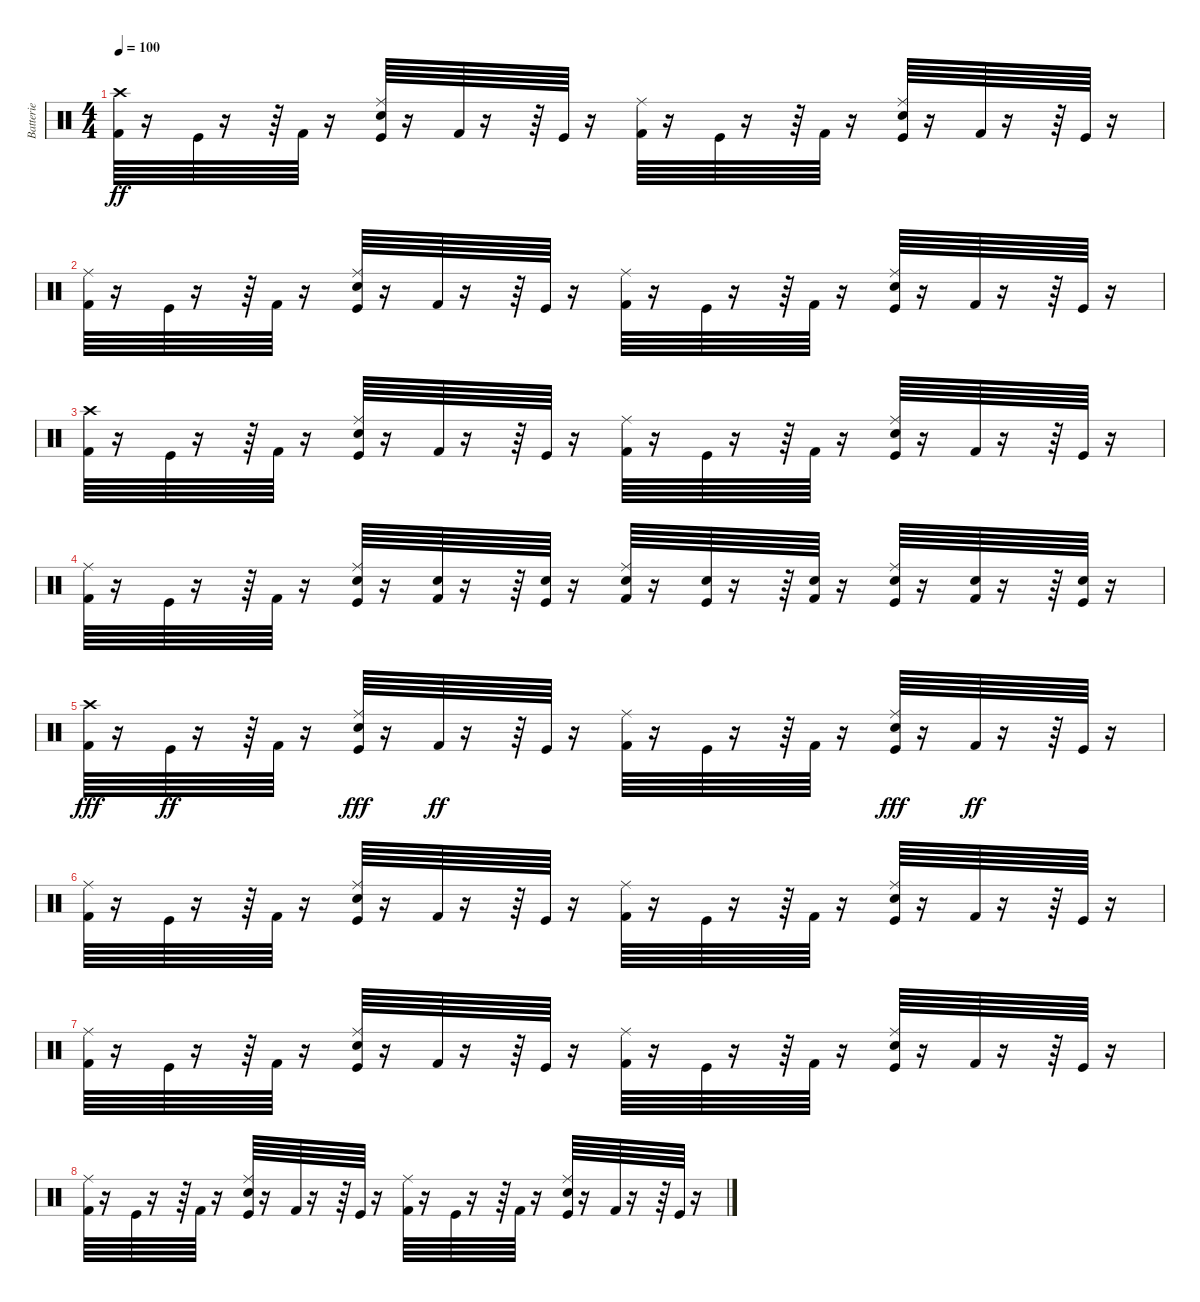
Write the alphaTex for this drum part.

\track ("Batterie" "Batterie") {instrument percussion}
\staff {score}
\articulation defaults
\ts (4 4)
\tempo 100
\clef neutral
\ks c
("Crash high (hit)" "Kick (hit) 2").64{dy ff} r.16 "Kick (hit)".64 r.16 r.64 "Kick (hit) 2".64 r.16 ("Ride (middle)" "Electric Snare (hit)" "Kick (hit)").64 r.16 "Kick (hit) 2".64 r.16 r.64 "Kick (hit)".64 r.16 ("Ride (middle)" "Kick (hit) 2").64 r.16 "Kick (hit)".64 r.16 r.64 "Kick (hit) 2".64 r.16 ("Ride (middle)" "Electric Snare (hit)" "Kick (hit)").64 r.16 "Kick (hit) 2".64 r.16 r.64 "Kick (hit)".64 r.16 |
("Ride (middle)" "Kick (hit) 2").64 r.16 "Kick (hit)".64 r.16 r.64 "Kick (hit) 2".64 r.16 ("Ride (middle)" "Electric Snare (hit)" "Kick (hit)").64 r.16 "Kick (hit) 2".64 r.16 r.64 "Kick (hit)".64 r.16 ("Ride (middle)" "Kick (hit) 2").64 r.16 "Kick (hit)".64 r.16 r.64 "Kick (hit) 2".64 r.16 ("Ride (middle)" "Electric Snare (hit)" "Kick (hit)").64 r.16 "Kick (hit) 2".64 r.16 r.64 "Kick (hit)".64 r.16 |
("Crash high (hit)" "Kick (hit) 2").64 r.16 "Kick (hit)".64 r.16 r.64 "Kick (hit) 2".64 r.16 ("Ride (middle)" "Electric Snare (hit)" "Kick (hit)").64 r.16 "Kick (hit) 2".64 r.16 r.64 "Kick (hit)".64 r.16 ("Ride (middle)" "Kick (hit) 2").64 r.16 "Kick (hit)".64 r.16 r.64 "Kick (hit) 2".64 r.16 ("Ride (middle)" "Electric Snare (hit)" "Kick (hit)").64 r.16 "Kick (hit) 2".64 r.16 r.64 "Kick (hit)".64 r.16 |
("Ride (middle)" "Kick (hit) 2").64 r.16 "Kick (hit)".64 r.16 r.64 "Kick (hit) 2".64 r.16 ("Ride (middle)" "Electric Snare (hit)" "Kick (hit)").64 r.16 ("Electric Snare (hit)" "Kick (hit) 2").64 r.16 r.64 ("Electric Snare (hit)" "Kick (hit)").64 r.16 ("Ride (middle)" "Electric Snare (hit)" "Kick (hit) 2").64 r.16 ("Electric Snare (hit)" "Kick (hit)").64 r.16 r.64 ("Electric Snare (hit)" "Kick (hit) 2").64 r.16 ("Ride (middle)" "Electric Snare (hit)" "Kick (hit)").64 r.16 ("Electric Snare (hit)" "Kick (hit) 2").64 r.16 r.64 ("Electric Snare (hit)" "Kick (hit)").64 r.16 |
("Kick (hit) 2" "Crash high (hit)").64{dy fff} r.16 "Kick (hit)".64{dy ff} r.16 r.64 "Kick (hit) 2".64 r.16 ("Kick (hit)" "Ride (middle)" "Electric Snare (hit)").64{dy fff} r.16 "Kick (hit) 2".64{dy ff} r.16 r.64 "Kick (hit)".64 r.16 ("Kick (hit) 2" "Ride (middle)").64 r.16 "Kick (hit)".64 r.16 r.64 "Kick (hit) 2".64 r.16 ("Kick (hit)" "Ride (middle)" "Electric Snare (hit)").64{dy fff} r.16 "Kick (hit) 2".64{dy ff} r.16 r.64 "Kick (hit)".64 r.16 |
("Kick (hit) 2" "Ride (middle)").64 r.16 "Kick (hit)".64 r.16 r.64 "Kick (hit) 2".64 r.16 ("Kick (hit)" "Electric Snare (hit)" "Ride (middle)").64 r.16 "Kick (hit) 2".64 r.16 r.64 "Kick (hit)".64 r.16 ("Kick (hit) 2" "Ride (middle)").64 r.16 "Kick (hit)".64 r.16 r.64 "Kick (hit) 2".64 r.16 ("Kick (hit)" "Electric Snare (hit)" "Ride (middle)").64 r.16 "Kick (hit) 2".64 r.16 r.64 "Kick (hit)".64 r.16 |
("Kick (hit) 2" "Ride (middle)").64 r.16 "Kick (hit)".64 r.16 r.64 "Kick (hit) 2".64 r.16 ("Kick (hit)" "Electric Snare (hit)" "Ride (middle)").64 r.16 "Kick (hit) 2".64 r.16 r.64 "Kick (hit)".64 r.16 ("Kick (hit) 2" "Ride (middle)").64 r.16 "Kick (hit)".64 r.16 r.64 "Kick (hit) 2".64 r.16 ("Kick (hit)" "Electric Snare (hit)" "Ride (middle)").64 r.16 "Kick (hit) 2".64 r.16 r.64 "Kick (hit)".64 r.16 |
("Kick (hit) 2" "Ride (middle)").64 r.16 "Kick (hit)".64 r.16 r.64 "Kick (hit) 2".64 r.16 ("Kick (hit)" "Electric Snare (hit)" "Ride (middle)").64 r.16 "Kick (hit) 2".64 r.16 r.64 "Kick (hit)".64 r.16 ("Kick (hit) 2" "Ride (middle)").64 r.16 "Kick (hit)".64 r.16 r.64 "Kick (hit) 2".64 r.16 ("Kick (hit)" "Electric Snare (hit)" "Ride (middle)").64 r.16 "Kick (hit) 2".64 r.16 r.64 "Kick (hit)".64 r.16
